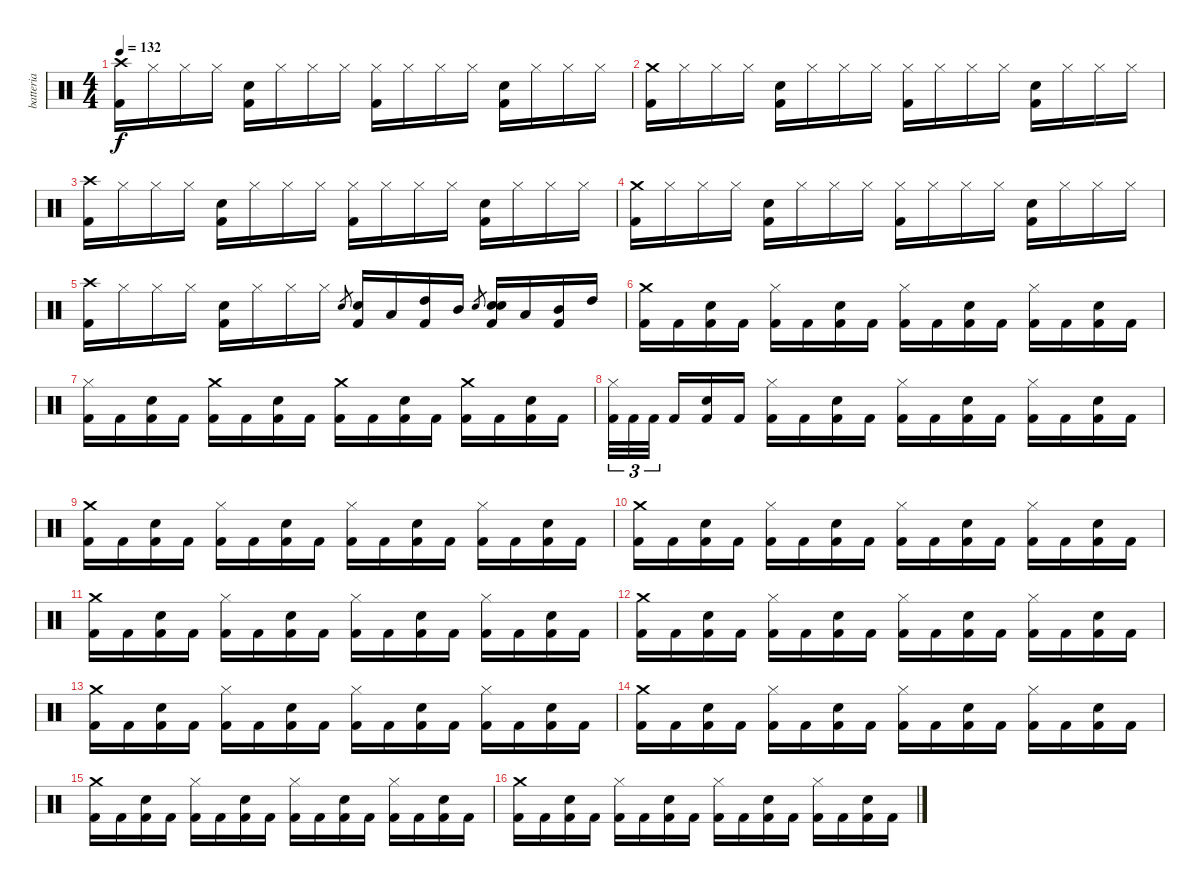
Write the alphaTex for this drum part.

\track ("batteria" "batteria") {instrument percussion}
\staff {score}
\articulation defaults
\ts (4 4)
\tempo 132
\clef neutral
\ks c
("Kick (hit) 2" "Crash high (hit)").16{dy f} "Hi-Hat (closed)".16 "Hi-Hat (closed)".16 "Hi-Hat (closed)".16 ("Kick (hit) 2" "Snare (hit) 2").16 "Hi-Hat (closed)".16 "Hi-Hat (closed)".16 "Hi-Hat (closed)".16 ("Kick (hit) 2" "Hi-Hat (closed)").16 "Hi-Hat (closed)".16 "Hi-Hat (closed)".16 "Hi-Hat (closed)".16 ("Kick (hit) 2" "Snare (hit) 2").16 "Hi-Hat (closed)".16 "Hi-Hat (closed)".16 "Hi-Hat (closed)".16 |
("Kick (hit) 2" "Crash medium (hit)").16 "Hi-Hat (closed)".16 "Hi-Hat (closed)".16 "Hi-Hat (closed)".16 ("Kick (hit) 2" "Snare (hit) 2").16 "Hi-Hat (closed)".16 "Hi-Hat (closed)".16 "Hi-Hat (closed)".16 ("Kick (hit) 2" "Hi-Hat (closed)").16 "Hi-Hat (closed)".16 "Hi-Hat (closed)".16 "Hi-Hat (closed)".16 ("Kick (hit) 2" "Snare (hit) 2").16 "Hi-Hat (closed)".16 "Hi-Hat (closed)".16 "Hi-Hat (closed)".16 |
("Kick (hit) 2" "Crash high (hit)").16 "Hi-Hat (closed)".16 "Hi-Hat (closed)".16 "Hi-Hat (closed)".16 ("Kick (hit) 2" "Snare (hit) 2").16 "Hi-Hat (closed)".16 "Hi-Hat (closed)".16 "Hi-Hat (closed)".16 ("Kick (hit) 2" "Hi-Hat (closed)").16 "Hi-Hat (closed)".16 "Hi-Hat (closed)".16 "Hi-Hat (closed)".16 ("Kick (hit) 2" "Snare (hit) 2").16 "Hi-Hat (closed)".16 "Hi-Hat (closed)".16 "Hi-Hat (closed)".16 |
("Kick (hit) 2" "Crash medium (hit)").16 "Hi-Hat (closed)".16 "Hi-Hat (closed)".16 "Hi-Hat (closed)".16 ("Kick (hit) 2" "Snare (hit) 2").16 "Hi-Hat (closed)".16 "Hi-Hat (closed)".16 "Hi-Hat (closed)".16 ("Kick (hit) 2" "Hi-Hat (closed)").16 "Hi-Hat (closed)".16 "Hi-Hat (closed)".16 "Hi-Hat (closed)".16 ("Kick (hit) 2" "Snare (hit) 2").16 "Hi-Hat (closed)".16 "Hi-Hat (closed)".16 "Hi-Hat (closed)".16 |
("Kick (hit) 2" "Crash high (hit)").16 "Hi-Hat (closed)".16 "Hi-Hat (closed)".16 "Hi-Hat (closed)".16 ("Kick (hit) 2" "Snare (hit) 2").16 "Hi-Hat (closed)".16 "Hi-Hat (closed)".16 "Hi-Hat (closed)".16 "Snare (hit) 2".8{gr} ("Kick (hit) 2" "Snare (hit) 2").16 "Low Tom (hit)".16 ("Kick (hit) 2" "High Tom (hit)").16 "Mid Tom (hit)".16 "Snare (hit) 2".8{gr} ("Kick (hit) 2" "Snare (hit) 2" "Snare (hit) 2").16 "Low Tom (hit)".16 ("Kick (hit) 2" "Mid Tom (hit)").16 "High Tom (hit)".16 |
("Kick (hit) 2" "Crash medium (hit)").16 "Kick (hit) 2".16 ("Kick (hit) 2" "Snare (hit) 2").16 "Kick (hit) 2".16 ("Kick (hit) 2" "Hi-Hat (closed)").16 "Kick (hit) 2".16 ("Kick (hit) 2" "Snare (hit) 2").16 "Kick (hit) 2".16 ("Kick (hit) 2" "Hi-Hat (closed)").16 "Kick (hit) 2".16 ("Kick (hit) 2" "Snare (hit) 2").16 "Kick (hit) 2".16 ("Kick (hit) 2" "Hi-Hat (closed)").16 "Kick (hit) 2".16 ("Kick (hit) 2" "Snare (hit) 2").16 "Kick (hit) 2".16 |
("Kick (hit) 2" "Hi-Hat (closed)").16 "Kick (hit) 2".16 ("Kick (hit) 2" "Snare (hit) 2").16 "Kick (hit) 2".16 ("Kick (hit) 2" "Crash medium (hit)").16 "Kick (hit) 2".16 ("Kick (hit) 2" "Snare (hit) 2").16 "Kick (hit) 2".16 ("Kick (hit) 2" "Crash medium (hit)").16 "Kick (hit) 2".16 ("Kick (hit) 2" "Snare (hit) 2").16 "Kick (hit) 2".16 ("Kick (hit) 2" "Crash medium (hit)").16 "Kick (hit) 2".16 ("Kick (hit) 2" "Snare (hit) 2").16 "Kick (hit) 2".16 |
("Kick (hit) 2" "Hi-Hat (closed)").32{tu (3 2)} "Kick (hit) 2".32{tu (3 2)} "Kick (hit) 2".32{tu (3 2) beam splitsecondary} "Kick (hit) 2".16 ("Kick (hit) 2" "Snare (hit) 2").16 "Kick (hit) 2".16 ("Kick (hit) 2" "Hi-Hat (closed)").16 "Kick (hit) 2".16 ("Kick (hit) 2" "Snare (hit) 2").16 "Kick (hit) 2".16 ("Kick (hit) 2" "Hi-Hat (closed)").16 "Kick (hit) 2".16 ("Kick (hit) 2" "Snare (hit) 2").16 "Kick (hit) 2".16 ("Kick (hit) 2" "Hi-Hat (closed)").16 "Kick (hit) 2".16 ("Kick (hit) 2" "Snare (hit) 2").16 "Kick (hit) 2".16 |
("Kick (hit) 2" "Crash medium (hit)").16 "Kick (hit) 2".16 ("Kick (hit) 2" "Snare (hit) 2").16 "Kick (hit) 2".16 ("Kick (hit) 2" "Hi-Hat (closed)").16 "Kick (hit) 2".16 ("Kick (hit) 2" "Snare (hit) 2").16 "Kick (hit) 2".16 ("Kick (hit) 2" "Hi-Hat (closed)").16 "Kick (hit) 2".16 ("Kick (hit) 2" "Snare (hit) 2").16 "Kick (hit) 2".16 ("Kick (hit) 2" "Hi-Hat (closed)").16 "Kick (hit) 2".16 ("Kick (hit) 2" "Snare (hit) 2").16 "Kick (hit) 2".16 |
("Kick (hit) 2" "Crash medium (hit)").16 "Kick (hit) 2".16 ("Kick (hit) 2" "Snare (hit) 2").16 "Kick (hit) 2".16 ("Kick (hit) 2" "Hi-Hat (closed)").16 "Kick (hit) 2".16 ("Kick (hit) 2" "Snare (hit) 2").16 "Kick (hit) 2".16 ("Kick (hit) 2" "Hi-Hat (closed)").16 "Kick (hit) 2".16 ("Kick (hit) 2" "Snare (hit) 2").16 "Kick (hit) 2".16 ("Kick (hit) 2" "Hi-Hat (closed)").16 "Kick (hit) 2".16 ("Kick (hit) 2" "Snare (hit) 2").16 "Kick (hit) 2".16 |
("Kick (hit) 2" "Crash medium (hit)").16 "Kick (hit) 2".16 ("Kick (hit) 2" "Snare (hit) 2").16 "Kick (hit) 2".16 ("Kick (hit) 2" "Hi-Hat (closed)").16 "Kick (hit) 2".16 ("Kick (hit) 2" "Snare (hit) 2").16 "Kick (hit) 2".16 ("Kick (hit) 2" "Hi-Hat (closed)").16 "Kick (hit) 2".16 ("Kick (hit) 2" "Snare (hit) 2").16 "Kick (hit) 2".16 ("Kick (hit) 2" "Hi-Hat (closed)").16 "Kick (hit) 2".16 ("Kick (hit) 2" "Snare (hit) 2").16 "Kick (hit) 2".16 |
("Kick (hit) 2" "Crash medium (hit)").16 "Kick (hit) 2".16 ("Kick (hit) 2" "Snare (hit) 2").16 "Kick (hit) 2".16 ("Kick (hit) 2" "Hi-Hat (closed)").16 "Kick (hit) 2".16 ("Kick (hit) 2" "Snare (hit) 2").16 "Kick (hit) 2".16 ("Kick (hit) 2" "Hi-Hat (closed)").16 "Kick (hit) 2".16 ("Kick (hit) 2" "Snare (hit) 2").16 "Kick (hit) 2".16 ("Kick (hit) 2" "Hi-Hat (closed)").16 "Kick (hit) 2".16 ("Kick (hit) 2" "Snare (hit) 2").16 "Kick (hit) 2".16 |
("Kick (hit) 2" "Crash medium (hit)").16 "Kick (hit) 2".16 ("Kick (hit) 2" "Snare (hit) 2").16 "Kick (hit) 2".16 ("Kick (hit) 2" "Hi-Hat (closed)").16 "Kick (hit) 2".16 ("Kick (hit) 2" "Snare (hit) 2").16 "Kick (hit) 2".16 ("Kick (hit) 2" "Hi-Hat (closed)").16 "Kick (hit) 2".16 ("Kick (hit) 2" "Snare (hit) 2").16 "Kick (hit) 2".16 ("Kick (hit) 2" "Hi-Hat (closed)").16 "Kick (hit) 2".16 ("Kick (hit) 2" "Snare (hit) 2").16 "Kick (hit) 2".16 |
("Kick (hit) 2" "Crash medium (hit)").16 "Kick (hit) 2".16 ("Kick (hit) 2" "Snare (hit) 2").16 "Kick (hit) 2".16 ("Kick (hit) 2" "Hi-Hat (closed)").16 "Kick (hit) 2".16 ("Kick (hit) 2" "Snare (hit) 2").16 "Kick (hit) 2".16 ("Kick (hit) 2" "Hi-Hat (closed)").16 "Kick (hit) 2".16 ("Kick (hit) 2" "Snare (hit) 2").16 "Kick (hit) 2".16 ("Kick (hit) 2" "Hi-Hat (closed)").16 "Kick (hit) 2".16 ("Kick (hit) 2" "Snare (hit) 2").16 "Kick (hit) 2".16 |
("Kick (hit) 2" "Crash medium (hit)").16 "Kick (hit) 2".16 ("Kick (hit) 2" "Snare (hit) 2").16 "Kick (hit) 2".16 ("Kick (hit) 2" "Hi-Hat (closed)").16 "Kick (hit) 2".16 ("Kick (hit) 2" "Snare (hit) 2").16 "Kick (hit) 2".16 ("Kick (hit) 2" "Hi-Hat (closed)").16 "Kick (hit) 2".16 ("Kick (hit) 2" "Snare (hit) 2").16 "Kick (hit) 2".16 ("Kick (hit) 2" "Hi-Hat (closed)").16 "Kick (hit) 2".16 ("Kick (hit) 2" "Snare (hit) 2").16 "Kick (hit) 2".16 |
("Kick (hit) 2" "Crash medium (hit)").16 "Kick (hit) 2".16 ("Kick (hit) 2" "Snare (hit) 2").16 "Kick (hit) 2".16 ("Kick (hit) 2" "Hi-Hat (closed)").16 "Kick (hit) 2".16 ("Kick (hit) 2" "Snare (hit) 2").16 "Kick (hit) 2".16 ("Kick (hit) 2" "Hi-Hat (closed)").16 "Kick (hit) 2".16 ("Kick (hit) 2" "Snare (hit) 2").16 "Kick (hit) 2".16 ("Kick (hit) 2" "Hi-Hat (closed)").16 "Kick (hit) 2".16 ("Kick (hit) 2" "Snare (hit) 2").16 "Kick (hit) 2".16
